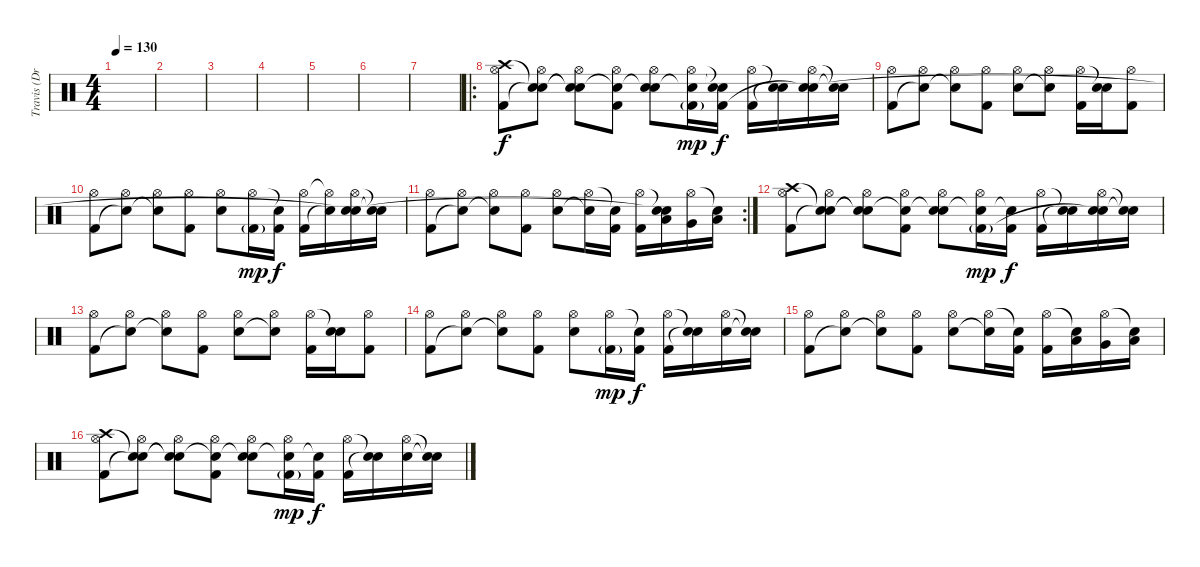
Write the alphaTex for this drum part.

\track ("Travis (Drums)" "Travis (Dr") {instrument percussion}
\staff {score}
\articulation defaults
\ts (4 4)
\tempo 130
\clef neutral
\ks c
|
|
|
|
|
|
|
\ro
("Crash high (hit)" "Hi-Hat (open)" "Kick (hit) 2").8 ("Snare (hit)"{t} "Hi-Hat (open)" "Snare (hit)"{t}).8 ("Snare (hit)"{t} "Hi-Hat (open)" "Snare (hit)"{t}).8 ("Snare (hit)"{t} "Hi-Hat (open)" "Kick (hit) 2").8 ("Snare (hit)"{t} "Hi-Hat (open)" "Electric Snare (hit)").8 ("Snare (hit)"{t} "Hi-Hat (open)" "Kick (hit) 2"{g}).16{dy mp} ("Snare (hit)"{t} "Snare (hit)"{t} "Kick (hit) 2").16{dy f} ("Hi-Hat (open)" "Kick (hit) 2").16 ("Snare (hit)"{t} "Snare (hit)"{t}).16 ("Hi-Hat (open)" "Electric Snare (hit)" "Snare (hit)"{t}).16 ("Snare (hit)"{t} "Electric Snare (hit)"{t}).16 |
("Hi-Hat (open)" "Kick (hit) 2").8 ("Hi-Hat (open)" "Snare (hit)"{t}).8 ("Hi-Hat (open)" "Snare (hit)"{t}).8 ("Hi-Hat (open)" "Kick (hit) 2").8 ("Hi-Hat (open)" "Electric Snare (hit)").8 ("Hi-Hat (open)" "Snare (hit)"{t}).8 ("Hi-Hat (open)" "Kick (hit) 2").16 ("Snare (hit)"{t} "Electric Snare (hit)").16 ("Hi-Hat (open)" "Kick (hit) 2").8 |
("Hi-Hat (open)" "Kick (hit) 2").8 ("Hi-Hat (open)" "Snare (hit)"{t}).8 ("Hi-Hat (open)" "Snare (hit)"{t}).8 ("Hi-Hat (open)" "Kick (hit) 2").8 ("Hi-Hat (open)" "Electric Snare (hit)").8 ("Hi-Hat (open)" "Kick (hit) 2"{g}).16{dy mp} ("Snare (hit)"{t} "Kick (hit) 2").16{dy f} ("Hi-Hat (open)" "Kick (hit) 2").16 ("Hi-Hat (open)"{t} "Snare (hit)"{t}).16 ("Hi-Hat (open)" "Electric Snare (hit)" "Snare (hit)"{t}).16 ("Snare (hit)"{t} "Electric Snare (hit)"{t}).16 |
\rc 2
("Hi-Hat (open)" "Kick (hit) 2").8 ("Hi-Hat (open)" "Snare (hit)"{t}).8 ("Hi-Hat (open)" "Snare (hit)"{t}).8 ("Hi-Hat (open)" "Kick (hit) 2").8 ("Hi-Hat (open)" "Electric Snare (hit)").8 ("Hi-Hat (open)" "Snare (hit)"{t}).16 ("Snare (hit)"{t} "Kick (hit) 2").16 ("Hi-Hat (open)" "Kick (hit) 2").16 ("Snare (hit)"{t} "Low Tom (hit)" "Snare (hit)"{t}).16 ("Hi-Hat (open)" "Very Low Tom (hit)").16 ("Snare (hit)"{t} "Low Floor Tom (hit)").16 |
("Crash high (hit)" "Hi-Hat (open)" "Kick (hit) 2").8 ("Snare (hit)"{t} "Hi-Hat (open)" "Snare (hit)"{t}).8 ("Snare (hit)"{t} "Hi-Hat (open)" "Snare (hit)"{t}).8 ("Snare (hit)"{t} "Hi-Hat (open)" "Kick (hit) 2").8 ("Snare (hit)"{t} "Hi-Hat (open)" "Electric Snare (hit)").8 ("Snare (hit)"{t} "Hi-Hat (open)" "Kick (hit) 2"{g}).16{dy mp} ("Snare (hit)"{t} "Kick (hit) 2").16{dy f} ("Hi-Hat (open)" "Kick (hit) 2").16 ("Snare (hit)"{t} "Snare (hit)"{t}).16 ("Hi-Hat (open)" "Electric Snare (hit)" "Snare (hit)"{t}).16 ("Snare (hit)"{t} "Snare (hit)"{t}).16 |
("Hi-Hat (open)" "Kick (hit) 2").8 ("Hi-Hat (open)" "Snare (hit)"{t}).8 ("Hi-Hat (open)" "Snare (hit)"{t}).8 ("Hi-Hat (open)" "Kick (hit) 2").8 ("Hi-Hat (open)" "Electric Snare (hit)").8 ("Hi-Hat (open)" "Snare (hit)"{t}).8 ("Hi-Hat (open)" "Kick (hit) 2").16 ("Snare (hit)"{t} "Electric Snare (hit)").16 ("Hi-Hat (open)" "Kick (hit) 2").8 |
("Hi-Hat (open)" "Kick (hit) 2").8 ("Hi-Hat (open)" "Snare (hit)"{t}).8 ("Hi-Hat (open)" "Snare (hit)"{t}).8 ("Hi-Hat (open)" "Kick (hit) 2").8 ("Hi-Hat (open)" "Electric Snare (hit)").8 ("Hi-Hat (open)" "Kick (hit) 2"{g}).16{dy mp} ("Snare (hit)"{t} "Kick (hit) 2").16{dy f} ("Hi-Hat (open)" "Kick (hit) 2").16 ("Snare (hit)"{t} "Snare (hit)"{t}).16 ("Hi-Hat (open)" "Electric Snare (hit)").16 ("Snare (hit)"{t} "Snare (hit)"{t}).16 |
("Hi-Hat (open)" "Kick (hit) 2").8 ("Hi-Hat (open)" "Snare (hit)"{t}).8 ("Hi-Hat (open)" "Snare (hit)"{t}).8 ("Hi-Hat (open)" "Kick (hit) 2").8 ("Hi-Hat (open)" "Electric Snare (hit)").8 ("Hi-Hat (open)" "Snare (hit)"{t}).16 ("Snare (hit)"{t} "Kick (hit) 2").16 ("Hi-Hat (open)" "Kick (hit) 2").16 ("Snare (hit)"{t} "Low Tom (hit)").16 ("Hi-Hat (open)" "Very Low Tom (hit)").16 ("Snare (hit)"{t} "Low Floor Tom (hit)").16 |
("Crash high (hit)" "Hi-Hat (open)" "Kick (hit) 2").8 ("Snare (hit)"{t} "Hi-Hat (open)" "Snare (hit)"{t}).8 ("Snare (hit)"{t} "Hi-Hat (open)" "Snare (hit)"{t}).8 ("Snare (hit)"{t} "Hi-Hat (open)" "Kick (hit) 2").8 ("Snare (hit)"{t} "Hi-Hat (open)" "Electric Snare (hit)").8 ("Snare (hit)"{t} "Hi-Hat (open)" "Kick (hit) 2"{g}).16{dy mp} ("Snare (hit)"{t} "Kick (hit) 2").16{dy f} ("Hi-Hat (open)" "Kick (hit) 2").16 ("Snare (hit)"{t} "Snare (hit)"{t}).16 ("Hi-Hat (open)" "Electric Snare (hit)").16 ("Snare (hit)"{t} "Snare (hit)"{t}).16
